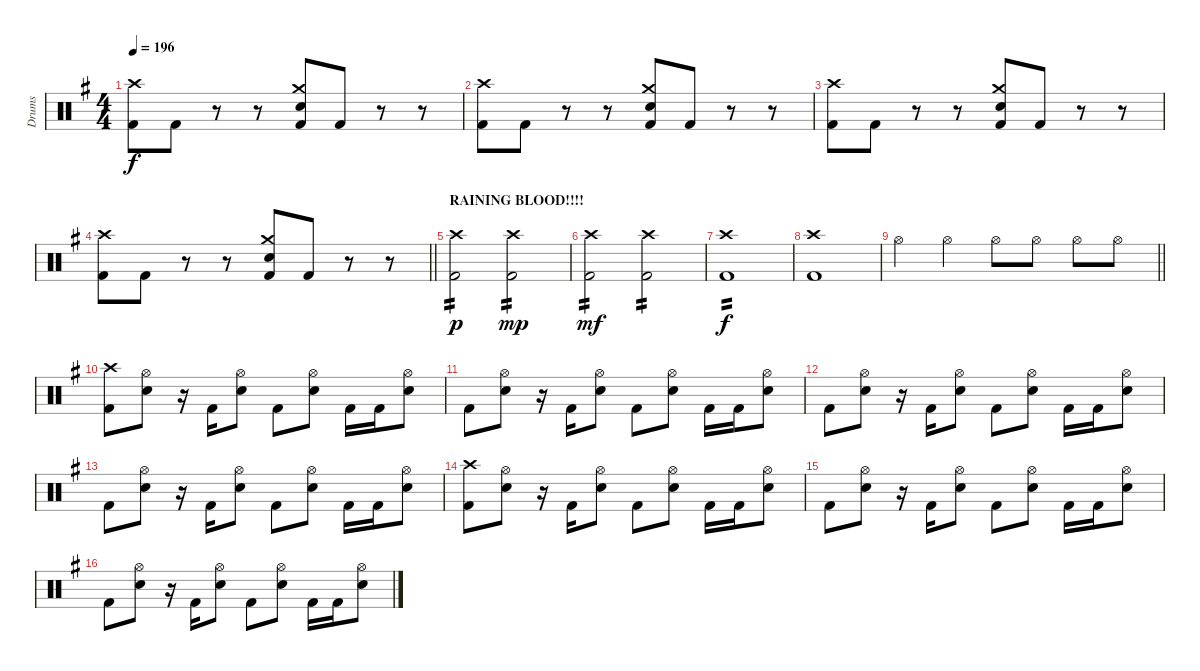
\track ("Drums" "Drums") {instrument percussion}
\staff {score}
\articulation defaults
\ts (4 4)
\tempo 196
\clef neutral
\ks eminor
("Crash high (hit)" "Kick (hit) 2").8{dy f} "Kick (hit) 2".8 r.8 r.8 ("Crash medium (hit)" "Electric Snare (hit)" "Kick (hit) 2").8 "Kick (hit) 2".8 r.8 r.8 |
("Crash high (hit)" "Kick (hit) 2").8 "Kick (hit) 2".8 r.8 r.8 ("Crash medium (hit)" "Electric Snare (hit)" "Kick (hit) 2").8 "Kick (hit) 2".8 r.8 r.8 |
("Crash high (hit)" "Kick (hit) 2").8 "Kick (hit) 2".8 r.8 r.8 ("Crash medium (hit)" "Electric Snare (hit)" "Kick (hit) 2").8 "Kick (hit) 2".8 r.8 r.8 |
\barLineRight lightlight
("Crash high (hit)" "Kick (hit) 2").8 "Kick (hit) 2".8 r.8 r.8 ("Crash medium (hit)" "Electric Snare (hit)" "Kick (hit) 2").8 "Kick (hit) 2".8 r.8 r.8 |
\section ("" "RAINING BLOOD!!!!")
("Crash high (hit)" "Kick (hit) 2").2{tp 2 dy p} ("Crash high (hit)" "Kick (hit) 2").2{tp 2 dy mp} |
("Crash high (hit)" "Kick (hit) 2").2{tp 2 dy mf} ("Crash high (hit)" "Kick (hit) 2").2{tp 2} |
("Crash high (hit)" "Kick (hit) 2").1{tp 2 dy f} |
("Crash high (hit)" "Kick (hit) 2").1 |
\barLineRight lightlight "Hi-Hat (open)".4 "Hi-Hat (open)".4 "Hi-Hat (open)".8 "Hi-Hat (open)".8 "Hi-Hat (open)".8 "Hi-Hat (open)".8
|
\section ("" "")
("Crash high (hit)" "Kick (hit) 2").8 ("Hi-Hat (open)" "Electric Snare (hit)").8 r.16 "Kick (hit) 2".16 ("Hi-Hat (open)" "Electric Snare (hit)").8 "Kick (hit) 2".8 ("Hi-Hat (open)" "Electric Snare (hit)").8 "Kick (hit) 2".16 "Kick (hit) 2".16 ("Hi-Hat (open)" "Electric Snare (hit)").8 |
"Kick (hit) 2".8 ("Hi-Hat (open)" "Electric Snare (hit)").8 r.16 "Kick (hit) 2".16 ("Hi-Hat (open)" "Electric Snare (hit)").8 "Kick (hit) 2".8 ("Hi-Hat (open)" "Electric Snare (hit)").8 "Kick (hit) 2".16 "Kick (hit) 2".16 ("Hi-Hat (open)" "Electric Snare (hit)").8 |
"Kick (hit) 2".8 ("Hi-Hat (open)" "Electric Snare (hit)").8 r.16 "Kick (hit) 2".16 ("Hi-Hat (open)" "Electric Snare (hit)").8 "Kick (hit) 2".8 ("Hi-Hat (open)" "Electric Snare (hit)").8 "Kick (hit) 2".16 "Kick (hit) 2".16 ("Hi-Hat (open)" "Electric Snare (hit)").8 |
"Kick (hit) 2".8 ("Hi-Hat (open)" "Electric Snare (hit)").8 r.16 "Kick (hit) 2".16 ("Hi-Hat (open)" "Electric Snare (hit)").8 "Kick (hit) 2".8 ("Hi-Hat (open)" "Electric Snare (hit)").8 "Kick (hit) 2".16 "Kick (hit) 2".16 ("Hi-Hat (open)" "Electric Snare (hit)").8 |
("Crash high (hit)" "Kick (hit) 2").8 ("Hi-Hat (open)" "Electric Snare (hit)").8 r.16 "Kick (hit) 2".16 ("Hi-Hat (open)" "Electric Snare (hit)").8 "Kick (hit) 2".8 ("Hi-Hat (open)" "Electric Snare (hit)").8 "Kick (hit) 2".16 "Kick (hit) 2".16 ("Hi-Hat (open)" "Electric Snare (hit)").8 |
"Kick (hit) 2".8 ("Hi-Hat (open)" "Electric Snare (hit)").8 r.16 "Kick (hit) 2".16 ("Hi-Hat (open)" "Electric Snare (hit)").8 "Kick (hit) 2".8 ("Hi-Hat (open)" "Electric Snare (hit)").8 "Kick (hit) 2".16 "Kick (hit) 2".16 ("Hi-Hat (open)" "Electric Snare (hit)").8 |
"Kick (hit) 2".8 ("Hi-Hat (open)" "Electric Snare (hit)").8 r.16 "Kick (hit) 2".16 ("Hi-Hat (open)" "Electric Snare (hit)").8 "Kick (hit) 2".8 ("Hi-Hat (open)" "Electric Snare (hit)").8 "Kick (hit) 2".16 "Kick (hit) 2".16 ("Hi-Hat (open)" "Electric Snare (hit)").8
